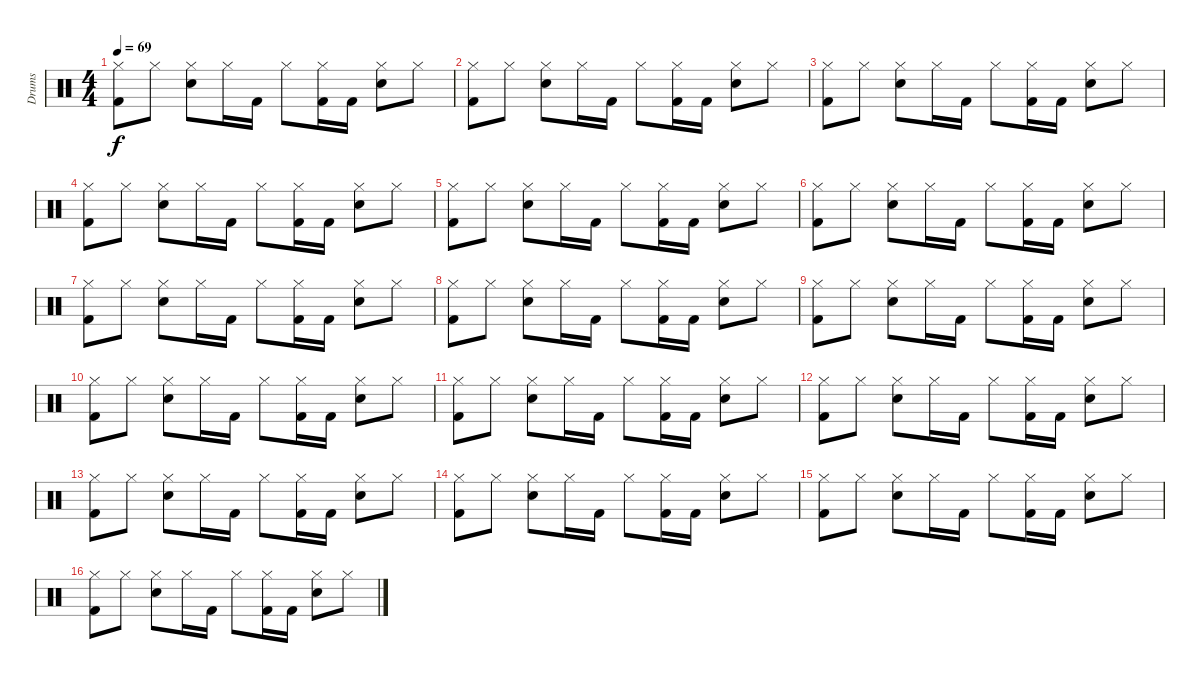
\track ("Drums" "Drums") {instrument percussion}
\staff {score}
\articulation defaults
\ts (4 4)
\tempo 69
\clef neutral
\ks c
("Hi-Hat (closed)" "Kick (hit) 2").8{dy f} "Hi-Hat (closed)".8 ("Hi-Hat (closed)" "Snare (hit) 2").8 "Hi-Hat (closed)".16 "Kick (hit) 2".16 "Hi-Hat (closed)".8 ("Hi-Hat (closed)" "Kick (hit) 2").16 "Kick (hit) 2".16 ("Hi-Hat (closed)" "Snare (hit) 2").8 "Hi-Hat (closed)".8 |
("Hi-Hat (closed)" "Kick (hit) 2").8 "Hi-Hat (closed)".8 ("Hi-Hat (closed)" "Snare (hit) 2").8 "Hi-Hat (closed)".16 "Kick (hit) 2".16 "Hi-Hat (closed)".8 ("Hi-Hat (closed)" "Kick (hit) 2").16 "Kick (hit) 2".16 ("Hi-Hat (closed)" "Snare (hit) 2").8 "Hi-Hat (closed)".8 |
("Hi-Hat (closed)" "Kick (hit) 2").8 "Hi-Hat (closed)".8 ("Hi-Hat (closed)" "Snare (hit) 2").8 "Hi-Hat (closed)".16 "Kick (hit) 2".16 "Hi-Hat (closed)".8 ("Hi-Hat (closed)" "Kick (hit) 2").16 "Kick (hit) 2".16 ("Hi-Hat (closed)" "Snare (hit) 2").8 "Hi-Hat (closed)".8 |
("Hi-Hat (closed)" "Kick (hit) 2").8 "Hi-Hat (closed)".8 ("Hi-Hat (closed)" "Snare (hit) 2").8 "Hi-Hat (closed)".16 "Kick (hit) 2".16 "Hi-Hat (closed)".8 ("Hi-Hat (closed)" "Kick (hit) 2").16 "Kick (hit) 2".16 ("Hi-Hat (closed)" "Snare (hit) 2").8 "Hi-Hat (closed)".8 |
("Hi-Hat (closed)" "Kick (hit) 2").8 "Hi-Hat (closed)".8 ("Hi-Hat (closed)" "Snare (hit) 2").8 "Hi-Hat (closed)".16 "Kick (hit) 2".16 "Hi-Hat (closed)".8 ("Hi-Hat (closed)" "Kick (hit) 2").16 "Kick (hit) 2".16 ("Hi-Hat (closed)" "Snare (hit) 2").8 "Hi-Hat (closed)".8 |
("Hi-Hat (closed)" "Kick (hit) 2").8 "Hi-Hat (closed)".8 ("Hi-Hat (closed)" "Snare (hit) 2").8 "Hi-Hat (closed)".16 "Kick (hit) 2".16 "Hi-Hat (closed)".8 ("Hi-Hat (closed)" "Kick (hit) 2").16 "Kick (hit) 2".16 ("Hi-Hat (closed)" "Snare (hit) 2").8 "Hi-Hat (closed)".8 |
("Hi-Hat (closed)" "Kick (hit) 2").8 "Hi-Hat (closed)".8 ("Hi-Hat (closed)" "Snare (hit) 2").8 "Hi-Hat (closed)".16 "Kick (hit) 2".16 "Hi-Hat (closed)".8 ("Hi-Hat (closed)" "Kick (hit) 2").16 "Kick (hit) 2".16 ("Hi-Hat (closed)" "Snare (hit) 2").8 "Hi-Hat (closed)".8 |
("Hi-Hat (closed)" "Kick (hit) 2").8 "Hi-Hat (closed)".8 ("Hi-Hat (closed)" "Snare (hit) 2").8 "Hi-Hat (closed)".16 "Kick (hit) 2".16 "Hi-Hat (closed)".8 ("Hi-Hat (closed)" "Kick (hit) 2").16 "Kick (hit) 2".16 ("Hi-Hat (closed)" "Snare (hit) 2").8 "Hi-Hat (closed)".8 |
("Hi-Hat (closed)" "Kick (hit) 2").8 "Hi-Hat (closed)".8 ("Hi-Hat (closed)" "Snare (hit) 2").8 "Hi-Hat (closed)".16 "Kick (hit) 2".16 "Hi-Hat (closed)".8 ("Hi-Hat (closed)" "Kick (hit) 2").16 "Kick (hit) 2".16 ("Hi-Hat (closed)" "Snare (hit) 2").8 "Hi-Hat (closed)".8 |
("Hi-Hat (closed)" "Kick (hit) 2").8 "Hi-Hat (closed)".8 ("Hi-Hat (closed)" "Snare (hit) 2").8 "Hi-Hat (closed)".16 "Kick (hit) 2".16 "Hi-Hat (closed)".8 ("Hi-Hat (closed)" "Kick (hit) 2").16 "Kick (hit) 2".16 ("Hi-Hat (closed)" "Snare (hit) 2").8 "Hi-Hat (closed)".8 |
("Hi-Hat (closed)" "Kick (hit) 2").8 "Hi-Hat (closed)".8 ("Hi-Hat (closed)" "Snare (hit) 2").8 "Hi-Hat (closed)".16 "Kick (hit) 2".16 "Hi-Hat (closed)".8 ("Hi-Hat (closed)" "Kick (hit) 2").16 "Kick (hit) 2".16 ("Hi-Hat (closed)" "Snare (hit) 2").8 "Hi-Hat (closed)".8 |
("Hi-Hat (closed)" "Kick (hit) 2").8 "Hi-Hat (closed)".8 ("Hi-Hat (closed)" "Snare (hit) 2").8 "Hi-Hat (closed)".16 "Kick (hit) 2".16 "Hi-Hat (closed)".8 ("Hi-Hat (closed)" "Kick (hit) 2").16 "Kick (hit) 2".16 ("Hi-Hat (closed)" "Snare (hit) 2").8 "Hi-Hat (closed)".8 |
("Hi-Hat (closed)" "Kick (hit) 2").8 "Hi-Hat (closed)".8 ("Hi-Hat (closed)" "Snare (hit) 2").8 "Hi-Hat (closed)".16 "Kick (hit) 2".16 "Hi-Hat (closed)".8 ("Hi-Hat (closed)" "Kick (hit) 2").16 "Kick (hit) 2".16 ("Hi-Hat (closed)" "Snare (hit) 2").8 "Hi-Hat (closed)".8 |
("Hi-Hat (closed)" "Kick (hit) 2").8 "Hi-Hat (closed)".8 ("Hi-Hat (closed)" "Snare (hit) 2").8 "Hi-Hat (closed)".16 "Kick (hit) 2".16 "Hi-Hat (closed)".8 ("Hi-Hat (closed)" "Kick (hit) 2").16 "Kick (hit) 2".16 ("Hi-Hat (closed)" "Snare (hit) 2").8 "Hi-Hat (closed)".8 |
("Hi-Hat (closed)" "Kick (hit) 2").8 "Hi-Hat (closed)".8 ("Hi-Hat (closed)" "Snare (hit) 2").8 "Hi-Hat (closed)".16 "Kick (hit) 2".16 "Hi-Hat (closed)".8 ("Hi-Hat (closed)" "Kick (hit) 2").16 "Kick (hit) 2".16 ("Hi-Hat (closed)" "Snare (hit) 2").8 "Hi-Hat (closed)".8 |
("Hi-Hat (closed)" "Kick (hit) 2").8 "Hi-Hat (closed)".8 ("Hi-Hat (closed)" "Snare (hit) 2").8 "Hi-Hat (closed)".16 "Kick (hit) 2".16 "Hi-Hat (closed)".8 ("Hi-Hat (closed)" "Kick (hit) 2").16 "Kick (hit) 2".16 ("Hi-Hat (closed)" "Snare (hit) 2").8 "Hi-Hat (closed)".8
